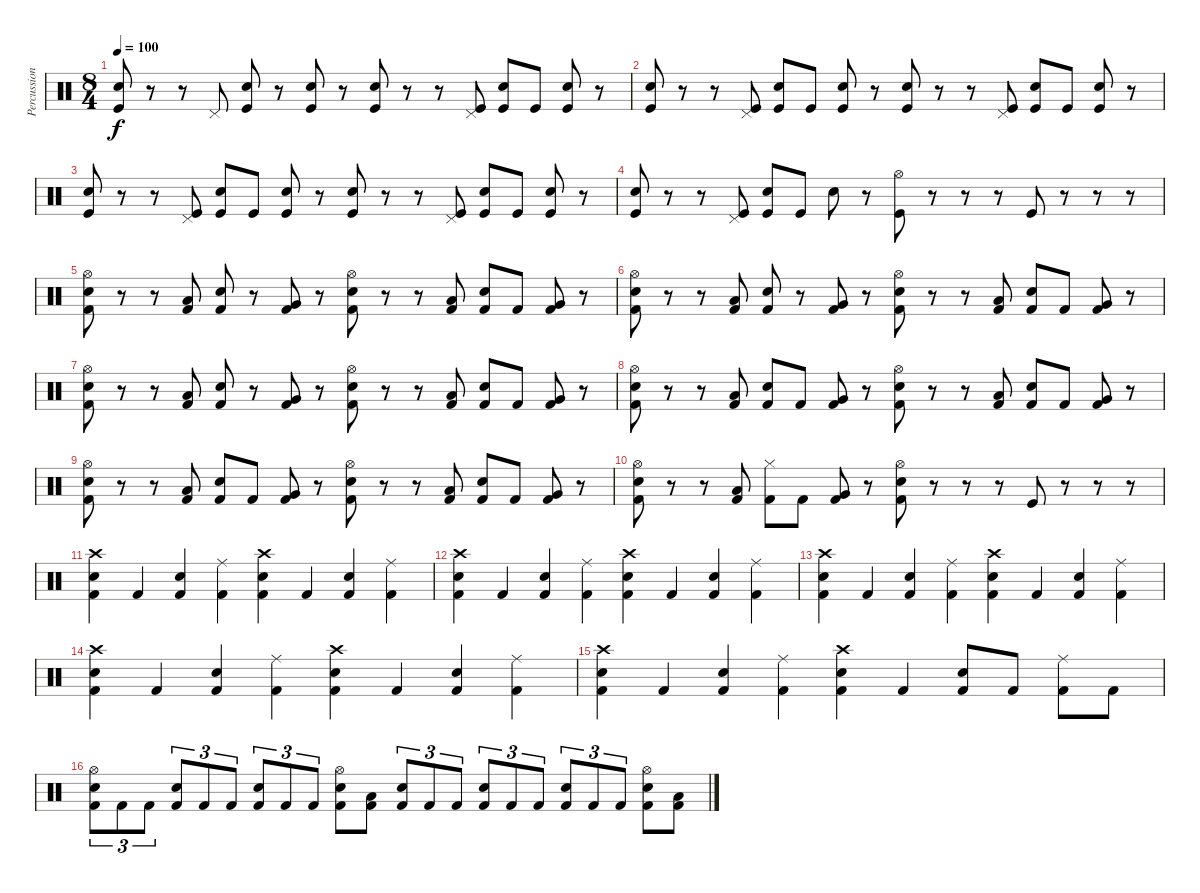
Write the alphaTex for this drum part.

\track ("Percussions" "Percussion") {instrument percussion}
\staff {score}
\articulation defaults
\ts (8 4)
\tempo 100
\clef neutral
\ks c
("Hand Clap (hit)" "Kick (hit)").8{dy f} r.8 r.8 "Pedal Hi-Hat (hit)".8 ("Hand Clap (hit)" "Kick (hit)").8 r.8 ("Hand Clap (hit)" "Kick (hit)").8 r.8 ("Hand Clap (hit)" "Kick (hit)").8 r.8 r.8 ("Pedal Hi-Hat (hit)" "Kick (hit)").8 ("Hand Clap (hit)" "Kick (hit)").8 "Kick (hit)".8 ("Hand Clap (hit)" "Kick (hit)").8 r.8 |
("Hand Clap (hit)" "Kick (hit)").8 r.8 r.8 ("Pedal Hi-Hat (hit)" "Kick (hit)").8 ("Hand Clap (hit)" "Kick (hit)").8 "Kick (hit)".8 ("Hand Clap (hit)" "Kick (hit)").8 r.8 ("Hand Clap (hit)" "Kick (hit)").8 r.8 r.8 ("Pedal Hi-Hat (hit)" "Kick (hit)").8 ("Hand Clap (hit)" "Kick (hit)").8 "Kick (hit)".8 ("Hand Clap (hit)" "Kick (hit)").8 r.8 |
("Hand Clap (hit)" "Kick (hit)").8 r.8 r.8 ("Pedal Hi-Hat (hit)" "Kick (hit)").8 ("Hand Clap (hit)" "Kick (hit)").8 "Kick (hit)".8 ("Hand Clap (hit)" "Kick (hit)").8 r.8 ("Hand Clap (hit)" "Kick (hit)").8 r.8 r.8 ("Pedal Hi-Hat (hit)" "Kick (hit)").8 ("Hand Clap (hit)" "Kick (hit)").8 "Kick (hit)".8 ("Hand Clap (hit)" "Kick (hit)").8 r.8 |
("Hand Clap (hit)" "Kick (hit)").8 r.8 r.8 ("Pedal Hi-Hat (hit)" "Kick (hit)").8 ("Hand Clap (hit)" "Kick (hit)").8 "Kick (hit)".8 "Hand Clap (hit)".8 r.8 ("Hi-Hat (open)" "Kick (hit)").8 r.8 r.8 r.8 "Kick (hit)".8 r.8 r.8 r.8 |
("Hi-Hat (open)" "Electric Snare (hit)" "Kick (hit) 2").8 r.8 r.8 ("Low Floor Tom (hit)" "Kick (hit) 2").8 ("Electric Snare (hit)" "Kick (hit) 2").8 r.8 ("Very Low Tom (hit)" "Kick (hit) 2").8 r.8 ("Hi-Hat (open)" "Electric Snare (hit)" "Kick (hit) 2").8 r.8 r.8 ("Low Floor Tom (hit)" "Kick (hit) 2").8 ("Electric Snare (hit)" "Kick (hit) 2").8 "Kick (hit) 2".8 ("Very Low Tom (hit)" "Kick (hit) 2").8 r.8 |
("Hi-Hat (open)" "Electric Snare (hit)" "Kick (hit) 2").8 r.8 r.8 ("Low Floor Tom (hit)" "Kick (hit) 2").8 ("Electric Snare (hit)" "Kick (hit) 2").8 r.8 ("Very Low Tom (hit)" "Kick (hit) 2").8 r.8 ("Hi-Hat (open)" "Electric Snare (hit)" "Kick (hit) 2").8 r.8 r.8 ("Low Floor Tom (hit)" "Kick (hit) 2").8 ("Electric Snare (hit)" "Kick (hit) 2").8 "Kick (hit) 2".8 ("Very Low Tom (hit)" "Kick (hit) 2").8 r.8 |
("Hi-Hat (open)" "Electric Snare (hit)" "Kick (hit) 2").8 r.8 r.8 ("Low Floor Tom (hit)" "Kick (hit) 2").8 ("Electric Snare (hit)" "Kick (hit) 2").8 r.8 ("Very Low Tom (hit)" "Kick (hit) 2").8 r.8 ("Hi-Hat (open)" "Electric Snare (hit)" "Kick (hit) 2").8 r.8 r.8 ("Low Floor Tom (hit)" "Kick (hit) 2").8 ("Electric Snare (hit)" "Kick (hit) 2").8 "Kick (hit) 2".8 ("Very Low Tom (hit)" "Kick (hit) 2").8 r.8 |
("Hi-Hat (open)" "Electric Snare (hit)" "Kick (hit) 2").8 r.8 r.8 ("Low Floor Tom (hit)" "Kick (hit) 2").8 ("Electric Snare (hit)" "Kick (hit) 2").8 "Kick (hit) 2".8 ("Very Low Tom (hit)" "Kick (hit) 2").8 r.8 ("Hi-Hat (open)" "Electric Snare (hit)" "Kick (hit) 2").8 r.8 r.8 ("Low Floor Tom (hit)" "Kick (hit) 2").8 ("Electric Snare (hit)" "Kick (hit) 2").8 "Kick (hit) 2".8 ("Very Low Tom (hit)" "Kick (hit) 2").8 r.8 |
("Hi-Hat (open)" "Electric Snare (hit)" "Kick (hit) 2").8 r.8 r.8 ("Low Floor Tom (hit)" "Kick (hit) 2").8 ("Electric Snare (hit)" "Kick (hit) 2").8 "Kick (hit) 2".8 ("Very Low Tom (hit)" "Kick (hit) 2").8 r.8 ("Hi-Hat (open)" "Electric Snare (hit)" "Kick (hit) 2").8 r.8 r.8 ("Low Floor Tom (hit)" "Kick (hit) 2").8 ("Electric Snare (hit)" "Kick (hit) 2").8 "Kick (hit) 2".8 ("Very Low Tom (hit)" "Kick (hit) 2").8 r.8 |
("Hi-Hat (open)" "Electric Snare (hit)" "Kick (hit) 2").8 r.8 r.8 ("Low Floor Tom (hit)" "Kick (hit) 2").8 ("Hi-Hat (closed)" "Kick (hit) 2").8 "Kick (hit) 2".8 ("Very Low Tom (hit)" "Kick (hit) 2").8 r.8 ("Hi-Hat (open)" "Electric Snare (hit)" "Kick (hit) 2").8 r.8 r.8 r.8 "Kick (hit)".8 r.8 r.8 r.8 |
("Crash high (hit)" "Electric Snare (hit)" "Kick (hit) 2").4 "Kick (hit) 2".4 ("Electric Snare (hit)" "Kick (hit) 2").4 ("Ride (middle)" "Kick (hit) 2").4 ("Crash high (hit)" "Electric Snare (hit)" "Kick (hit) 2").4 "Kick (hit) 2".4 ("Electric Snare (hit)" "Kick (hit) 2").4 ("Ride (middle)" "Kick (hit) 2").4 |
("Crash high (hit)" "Electric Snare (hit)" "Kick (hit) 2").4 "Kick (hit) 2".4 ("Electric Snare (hit)" "Kick (hit) 2").4 ("Ride (middle)" "Kick (hit) 2").4 ("Crash high (hit)" "Electric Snare (hit)" "Kick (hit) 2").4 "Kick (hit) 2".4 ("Electric Snare (hit)" "Kick (hit) 2").4 ("Ride (middle)" "Kick (hit) 2").4 |
("Crash high (hit)" "Electric Snare (hit)" "Kick (hit) 2").4 "Kick (hit) 2".4 ("Electric Snare (hit)" "Kick (hit) 2").4 ("Ride (middle)" "Kick (hit) 2").4 ("Crash high (hit)" "Electric Snare (hit)" "Kick (hit) 2").4 "Kick (hit) 2".4 ("Electric Snare (hit)" "Kick (hit) 2").4 ("Ride (middle)" "Kick (hit) 2").4 |
("Crash high (hit)" "Electric Snare (hit)" "Kick (hit) 2").4 "Kick (hit) 2".4 ("Electric Snare (hit)" "Kick (hit) 2").4 ("Ride (middle)" "Kick (hit) 2").4 ("Crash high (hit)" "Electric Snare (hit)" "Kick (hit) 2").4 "Kick (hit) 2".4 ("Electric Snare (hit)" "Kick (hit) 2").4 ("Ride (middle)" "Kick (hit) 2").4 |
("Crash high (hit)" "Electric Snare (hit)" "Kick (hit) 2").4 "Kick (hit) 2".4 ("Electric Snare (hit)" "Kick (hit) 2").4 ("Ride (middle)" "Kick (hit) 2").4 ("Crash high (hit)" "Electric Snare (hit)" "Kick (hit) 2").4 "Kick (hit) 2".4 ("Electric Snare (hit)" "Kick (hit) 2").8 "Kick (hit) 2".8 ("Ride (middle)" "Kick (hit) 2").8 "Kick (hit) 2".8 |
("Hi-Hat (open)" "Electric Snare (hit)" "Kick (hit) 2").8{tu (3 2)} "Kick (hit) 2".8{tu (3 2)} "Kick (hit) 2".8{tu (3 2)} ("Electric Snare (hit)" "Kick (hit) 2").8{tu (3 2)} "Kick (hit) 2".8{tu (3 2)} "Kick (hit) 2".8{tu (3 2)} ("Electric Snare (hit)" "Kick (hit) 2").8{tu (3 2)} "Kick (hit) 2".8{tu (3 2)} "Kick (hit) 2".8{tu (3 2)} ("Hi-Hat (open)" "Electric Snare (hit)" "Kick (hit) 2").8 ("Low Floor Tom (hit)" "Kick (hit) 2").8 ("Electric Snare (hit)" "Kick (hit) 2").8{tu (3 2)} "Kick (hit) 2".8{tu (3 2)} "Kick (hit) 2".8{tu (3 2)} ("Electric Snare (hit)" "Kick (hit) 2").8{tu (3 2)} "Kick (hit) 2".8{tu (3 2)} "Kick (hit) 2".8{tu (3 2)} ("Electric Snare (hit)" "Kick (hit) 2").8{tu (3 2)} "Kick (hit) 2".8{tu (3 2)} "Kick (hit) 2".8{tu (3 2)} ("Hi-Hat (open)" "Electric Snare (hit)" "Kick (hit) 2").8 ("Low Floor Tom (hit)" "Kick (hit) 2").8
